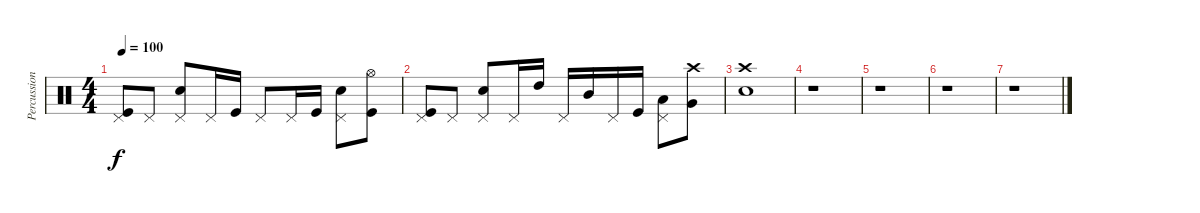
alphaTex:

\track ("Percussions" "Percussion") {instrument percussion}
\staff {score}
\articulation defaults
\ts (4 4)
\tempo 100
\clef neutral
\ks c
("Pedal Hi-Hat (hit)" "Kick (hit)").8{dy f} "Pedal Hi-Hat (hit)".8 ("Pedal Hi-Hat (hit)" "Snare (hit) 2").8 "Pedal Hi-Hat (hit)".16 "Kick (hit)".16 "Pedal Hi-Hat (hit)".8 "Pedal Hi-Hat (hit)".16 "Kick (hit)".16 ("Pedal Hi-Hat (hit)" "Snare (hit) 2").8 ("Hi-Hat (open)" "Kick (hit)").8 |
("Pedal Hi-Hat (hit)" "Kick (hit)").8 "Pedal Hi-Hat (hit)".8 ("Pedal Hi-Hat (hit)" "Snare (hit) 2").8 "Pedal Hi-Hat (hit)".16 "High Tom (hit)".16 "Pedal Hi-Hat (hit)".16 "Mid Tom (hit)".16 "Pedal Hi-Hat (hit)".16 "Kick (hit)".16 ("Pedal Hi-Hat (hit)" "Low Tom (hit)").8 ("Crash high (hit)" "Very Low Tom (hit)").8 |
("Crash high (hit)" "Snare (hit) 2").1 |
r.1 |
r.1 |
r.1 |
r.1
